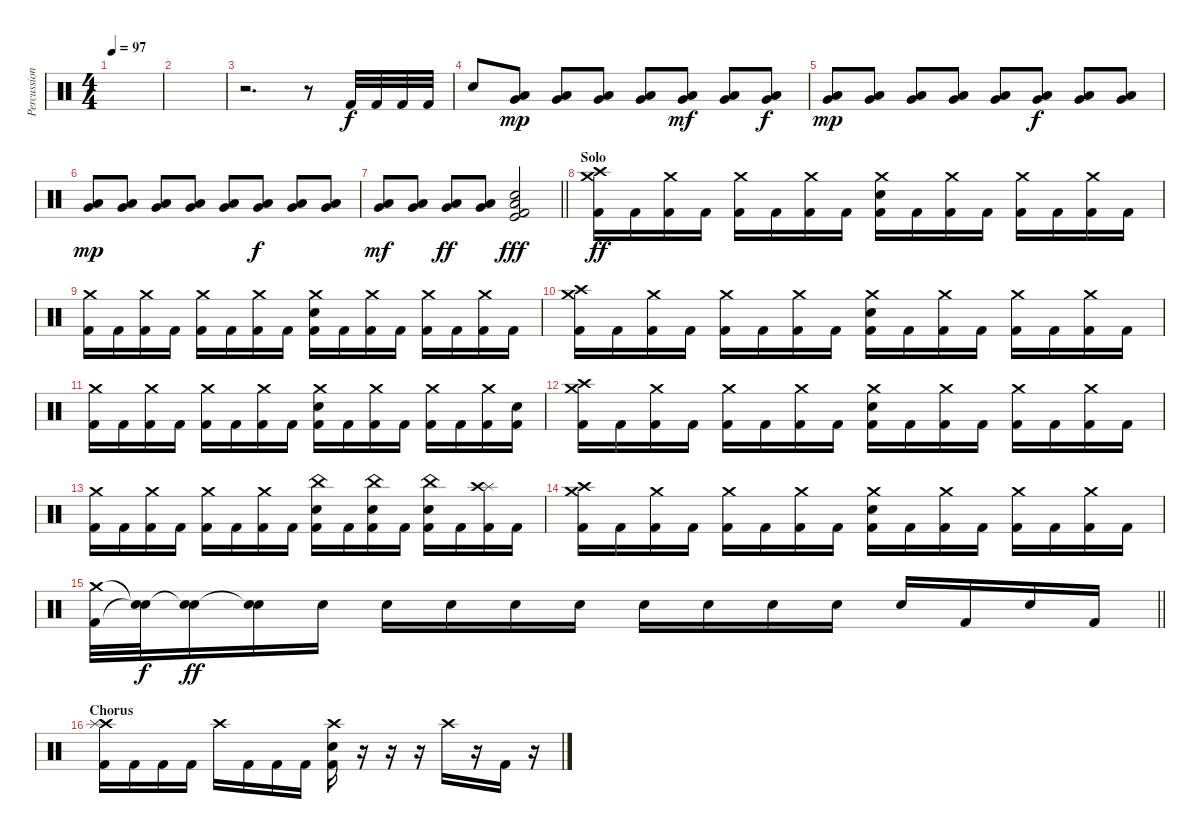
\track ("Percussion" "Percussion") {instrument percussion}
\staff {score}
\articulation defaults
\ts (4 4)
\tempo 97
\clef neutral
\ks c
|
|
r.2{d} r.8 "Kick (hit) 2".32 "Kick (hit) 2".32 "Kick (hit) 2".32 "Kick (hit) 2".32 |
"Electric Snare (hit)".8 ("Very Low Tom (hit)" "Low Floor Tom (hit)").8{dy mp} ("Very Low Tom (hit)" "Low Floor Tom (hit)").8 ("Very Low Tom (hit)" "Low Floor Tom (hit)").8 ("Very Low Tom (hit)" "Low Floor Tom (hit)").8 ("Very Low Tom (hit)" "Low Floor Tom (hit)").8{dy mf} ("Very Low Tom (hit)" "Low Floor Tom (hit)").8 ("Very Low Tom (hit)" "Low Floor Tom (hit)").8{dy f} |
("Very Low Tom (hit)" "Low Floor Tom (hit)").8{dy mp} ("Very Low Tom (hit)" "Low Floor Tom (hit)").8 ("Very Low Tom (hit)" "Low Floor Tom (hit)").8 ("Very Low Tom (hit)" "Low Floor Tom (hit)").8 ("Very Low Tom (hit)" "Low Floor Tom (hit)").8 ("Very Low Tom (hit)" "Low Floor Tom (hit)").8{dy f} ("Very Low Tom (hit)" "Low Floor Tom (hit)").8 ("Very Low Tom (hit)" "Low Floor Tom (hit)").8 |
("Very Low Tom (hit)" "Low Floor Tom (hit)").8{dy mp} ("Very Low Tom (hit)" "Low Floor Tom (hit)").8 ("Very Low Tom (hit)" "Low Floor Tom (hit)").8 ("Very Low Tom (hit)" "Low Floor Tom (hit)").8 ("Very Low Tom (hit)" "Low Floor Tom (hit)").8 ("Very Low Tom (hit)" "Low Floor Tom (hit)").8{dy f} ("Very Low Tom (hit)" "Low Floor Tom (hit)").8 ("Very Low Tom (hit)" "Low Floor Tom (hit)").8 |
\barLineRight lightlight
("Very Low Tom (hit)" "Low Floor Tom (hit)").8{dy mf} ("Very Low Tom (hit)" "Low Floor Tom (hit)").8 ("Very Low Tom (hit)" "Low Floor Tom (hit)").8{dy ff} ("Very Low Tom (hit)" "Low Floor Tom (hit)").8 ("Electric Snare (hit)" "Low Floor Tom (hit)" "Kick (hit)" "Kick (hit) 2").2{dy fff} |
\section ("" "Solo")
("Crash medium (hit)" "Crash high (hit)" "Kick (hit) 2").16{dy ff} "Kick (hit) 2".16 ("Crash medium (hit)" "Kick (hit) 2").16 "Kick (hit) 2".16 ("Crash medium (hit)" "Kick (hit) 2").16 "Kick (hit) 2".16 ("Crash medium (hit)" "Kick (hit) 2").16 "Kick (hit) 2".16 ("Crash medium (hit)" "Electric Snare (hit)" "Kick (hit) 2").16 "Kick (hit) 2".16 ("Crash medium (hit)" "Kick (hit) 2").16 "Kick (hit) 2".16 ("Crash medium (hit)" "Kick (hit) 2").16 "Kick (hit) 2".16 ("Crash medium (hit)" "Kick (hit) 2").16 "Kick (hit) 2".16 |
("Crash medium (hit)" "Kick (hit) 2").16 "Kick (hit) 2".16 ("Crash medium (hit)" "Kick (hit) 2").16 "Kick (hit) 2".16 ("Crash medium (hit)" "Kick (hit) 2").16 "Kick (hit) 2".16 ("Crash medium (hit)" "Kick (hit) 2").16 "Kick (hit) 2".16 ("Crash medium (hit)" "Electric Snare (hit)" "Kick (hit) 2").16 "Kick (hit) 2".16 ("Crash medium (hit)" "Kick (hit) 2").16 "Kick (hit) 2".16 ("Crash medium (hit)" "Kick (hit) 2").16 "Kick (hit) 2".16 ("Crash medium (hit)" "Kick (hit) 2").16 "Kick (hit) 2".16 |
("Crash medium (hit)" "Crash high (hit)" "Kick (hit) 2").16 "Kick (hit) 2".16 ("Crash medium (hit)" "Kick (hit) 2").16 "Kick (hit) 2".16 ("Crash medium (hit)" "Kick (hit) 2").16 "Kick (hit) 2".16 ("Crash medium (hit)" "Kick (hit) 2").16 "Kick (hit) 2".16 ("Crash medium (hit)" "Electric Snare (hit)" "Kick (hit) 2").16 "Kick (hit) 2".16 ("Crash medium (hit)" "Kick (hit) 2").16 "Kick (hit) 2".16 ("Crash medium (hit)" "Kick (hit) 2").16 "Kick (hit) 2".16 ("Crash medium (hit)" "Kick (hit) 2").16 "Kick (hit) 2".16 |
("Crash medium (hit)" "Kick (hit) 2").16 "Kick (hit) 2".16 ("Crash medium (hit)" "Kick (hit) 2").16 "Kick (hit) 2".16 ("Crash medium (hit)" "Kick (hit) 2").16 "Kick (hit) 2".16 ("Crash medium (hit)" "Kick (hit) 2").16 "Kick (hit) 2".16 ("Crash medium (hit)" "Electric Snare (hit)" "Kick (hit) 2").16 "Kick (hit) 2".16 ("Crash medium (hit)" "Kick (hit) 2").16 "Kick (hit) 2".16 ("Crash medium (hit)" "Kick (hit) 2").16 "Kick (hit) 2".16 ("Crash medium (hit)" "Kick (hit) 2").16 ("Electric Snare (hit)" "Kick (hit) 2").16 |
("Crash medium (hit)" "Crash high (hit)" "Kick (hit) 2").16 "Kick (hit) 2".16 ("Crash medium (hit)" "Kick (hit) 2").16 "Kick (hit) 2".16 ("Crash medium (hit)" "Kick (hit) 2").16 "Kick (hit) 2".16 ("Crash medium (hit)" "Kick (hit) 2").16 "Kick (hit) 2".16 ("Crash medium (hit)" "Electric Snare (hit)" "Kick (hit) 2").16 "Kick (hit) 2".16 ("Crash medium (hit)" "Kick (hit) 2").16 "Kick (hit) 2".16 ("Crash medium (hit)" "Kick (hit) 2").16 "Kick (hit) 2".16 ("Crash medium (hit)" "Kick (hit) 2").16 "Kick (hit) 2".16 |
("Crash medium (hit)" "Kick (hit) 2").16 "Kick (hit) 2".16 ("Crash medium (hit)" "Kick (hit) 2").16 "Kick (hit) 2".16 ("Crash medium (hit)" "Kick (hit) 2").16 "Kick (hit) 2".16 ("Crash medium (hit)" "Kick (hit) 2").16 "Kick (hit) 2".16 ("China (hit)" "Electric Snare (hit)" "Kick (hit) 2").16 "Kick (hit) 2".16 ("China (hit)" "Electric Snare (hit)" "Kick (hit) 2").16 "Kick (hit) 2".16 ("China (hit)" "Electric Snare (hit)" "Kick (hit) 2").16 "Kick (hit) 2".16 ("Splash (hit)" "Crash high (hit)" "Kick (hit) 2").16 "Kick (hit) 2".16 |
("Crash medium (hit)" "Crash high (hit)" "Kick (hit) 2").16 "Kick (hit) 2".16 ("Crash medium (hit)" "Kick (hit) 2").16 "Kick (hit) 2".16 ("Crash medium (hit)" "Kick (hit) 2").16 "Kick (hit) 2".16 ("Crash medium (hit)" "Kick (hit) 2").16 "Kick (hit) 2".16 ("Crash medium (hit)" "Electric Snare (hit)" "Kick (hit) 2").16 "Kick (hit) 2".16 ("Crash medium (hit)" "Kick (hit) 2").16 "Kick (hit) 2".16 ("Crash medium (hit)" "Kick (hit) 2").16 "Kick (hit) 2".16 ("Crash medium (hit)" "Kick (hit) 2").16 "Kick (hit) 2".16 |
\barLineRight lightlight
("Crash medium (hit)" "Kick (hit) 2").32 ("Snare (hit)"{t} "Snare (hit)"{t}).32{dy f volume 0} ("Snare (hit)"{t} "Electric Snare (hit)").16{dy ff volume 16} ("Snare (hit)"{t} "Electric Snare (hit)").16 "Electric Snare (hit)".16 "Electric Snare (hit)".16 "Electric Snare (hit)".16 "Electric Snare (hit)".16 "Electric Snare (hit)".16 "Electric Snare (hit)".16 "Electric Snare (hit)".16 "Electric Snare (hit)".16 "Electric Snare (hit)".16 "Electric Snare (hit)".16 "Kick (hit) 2".16 "Electric Snare (hit)".16 "Kick (hit) 2".16 |
\section ("" "Chorus")
("Crash high (hit)" "Splash (hit)" "Kick (hit) 2").16{volume 13} "Kick (hit) 2".16 "Kick (hit) 2".16 "Kick (hit) 2".16 "Crash high (hit)".16 "Kick (hit) 2".16 "Kick (hit) 2".16 "Kick (hit) 2".16 ("Crash high (hit)" "Electric Snare (hit)" "Kick (hit) 2").16 r.16 r.16 r.16 "Crash high (hit)".16 r.16 "Kick (hit) 2".16 r.16
